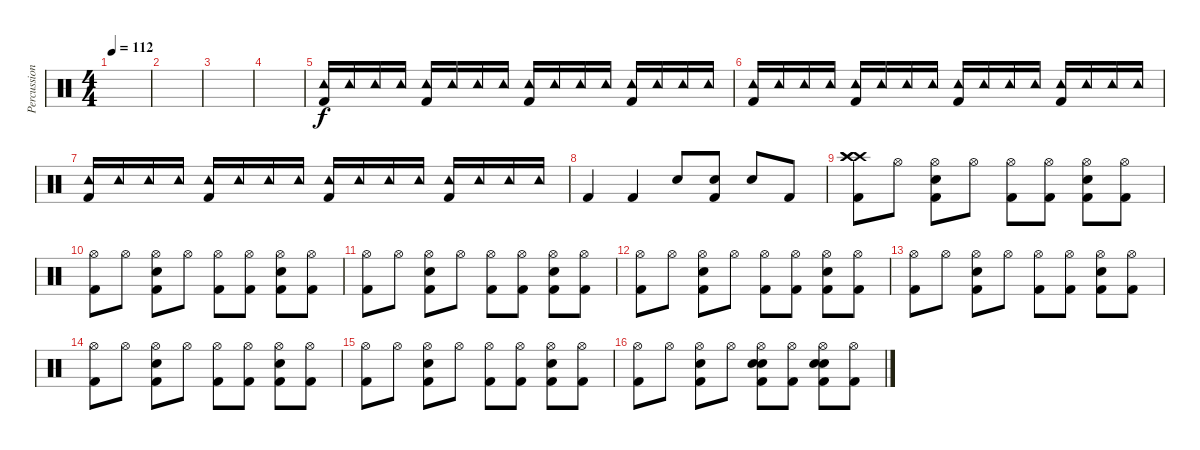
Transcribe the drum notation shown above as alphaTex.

\track ("Percussion" "Percussion") {instrument percussion}
\staff {score}
\articulation defaults
\ts (4 4)
\tempo 112
\clef neutral
\ks c
|
|
|
|
("Tambourine (hit)" "Kick (hit) 2").16 "Tambourine (hit)".16 "Tambourine (hit)".16 "Tambourine (hit)".16 ("Tambourine (hit)" "Kick (hit) 2").16 "Tambourine (hit)".16 "Tambourine (hit)".16 "Tambourine (hit)".16 ("Tambourine (hit)" "Kick (hit) 2").16 "Tambourine (hit)".16 "Tambourine (hit)".16 "Tambourine (hit)".16 ("Tambourine (hit)" "Kick (hit) 2").16 "Tambourine (hit)".16 "Tambourine (hit)".16 "Tambourine (hit)".16 |
("Tambourine (hit)" "Kick (hit) 2").16 "Tambourine (hit)".16 "Tambourine (hit)".16 "Tambourine (hit)".16 ("Tambourine (hit)" "Kick (hit) 2").16 "Tambourine (hit)".16 "Tambourine (hit)".16 "Tambourine (hit)".16 ("Tambourine (hit)" "Kick (hit) 2").16 "Tambourine (hit)".16 "Tambourine (hit)".16 "Tambourine (hit)".16 ("Tambourine (hit)" "Kick (hit) 2").16 "Tambourine (hit)".16 "Tambourine (hit)".16 "Tambourine (hit)".16 |
("Tambourine (hit)" "Kick (hit) 2").16 "Tambourine (hit)".16 "Tambourine (hit)".16 "Tambourine (hit)".16 ("Tambourine (hit)" "Kick (hit) 2").16 "Tambourine (hit)".16 "Tambourine (hit)".16 "Tambourine (hit)".16 ("Tambourine (hit)" "Kick (hit) 2").16 "Tambourine (hit)".16 "Tambourine (hit)".16 "Tambourine (hit)".16 ("Tambourine (hit)" "Kick (hit) 2").16 "Tambourine (hit)".16 "Tambourine (hit)".16 "Tambourine (hit)".16 |
"Kick (hit) 2".4 "Kick (hit) 2".4 "Electric Snare (hit)".8 ("Electric Snare (hit)" "Kick (hit) 2").8 "Snare (hit) 2".8 "Kick (hit) 2".8 |
("Crash high (hit)" "Crash high (hit)" "Crash high (hit)" "Kick (hit) 2").8 "Hi-Hat (open)".8 ("Hi-Hat (open)" "Electric Snare (hit)" "Kick (hit) 2").8 "Hi-Hat (open)".8 ("Hi-Hat (open)" "Kick (hit) 2").8 ("Hi-Hat (open)" "Kick (hit) 2").8 ("Hi-Hat (open)" "Electric Snare (hit)" "Kick (hit) 2").8 ("Hi-Hat (open)" "Kick (hit) 2").8 |
("Hi-Hat (open)" "Kick (hit) 2").8 "Hi-Hat (open)".8 ("Hi-Hat (open)" "Electric Snare (hit)" "Kick (hit) 2").8 "Hi-Hat (open)".8 ("Hi-Hat (open)" "Kick (hit) 2").8 ("Hi-Hat (open)" "Kick (hit) 2").8 ("Hi-Hat (open)" "Electric Snare (hit)" "Kick (hit) 2").8 ("Hi-Hat (open)" "Kick (hit) 2").8 |
("Hi-Hat (open)" "Kick (hit) 2").8 "Hi-Hat (open)".8 ("Hi-Hat (open)" "Electric Snare (hit)" "Kick (hit) 2").8 "Hi-Hat (open)".8 ("Hi-Hat (open)" "Kick (hit) 2").8 ("Hi-Hat (open)" "Kick (hit) 2").8 ("Hi-Hat (open)" "Electric Snare (hit)" "Kick (hit) 2").8 ("Hi-Hat (open)" "Kick (hit) 2").8 |
("Hi-Hat (open)" "Kick (hit) 2").8 "Hi-Hat (open)".8 ("Hi-Hat (open)" "Electric Snare (hit)" "Kick (hit) 2").8 "Hi-Hat (open)".8 ("Hi-Hat (open)" "Kick (hit) 2").8 ("Hi-Hat (open)" "Kick (hit) 2").8 ("Hi-Hat (open)" "Electric Snare (hit)" "Kick (hit) 2").8 ("Hi-Hat (open)" "Kick (hit) 2").8 |
("Hi-Hat (open)" "Kick (hit) 2").8 "Hi-Hat (open)".8 ("Hi-Hat (open)" "Electric Snare (hit)" "Kick (hit) 2").8 "Hi-Hat (open)".8 ("Hi-Hat (open)" "Kick (hit) 2").8 ("Hi-Hat (open)" "Kick (hit) 2").8 ("Hi-Hat (open)" "Electric Snare (hit)" "Kick (hit) 2").8 ("Hi-Hat (open)" "Kick (hit) 2").8 |
("Hi-Hat (open)" "Kick (hit) 2").8 "Hi-Hat (open)".8 ("Hi-Hat (open)" "Electric Snare (hit)" "Kick (hit) 2").8 "Hi-Hat (open)".8 ("Hi-Hat (open)" "Kick (hit) 2").8 ("Hi-Hat (open)" "Kick (hit) 2").8 ("Hi-Hat (open)" "Electric Snare (hit)" "Kick (hit) 2").8 ("Hi-Hat (open)" "Kick (hit) 2").8 |
("Hi-Hat (open)" "Kick (hit) 2").8 "Hi-Hat (open)".8 ("Hi-Hat (open)" "Electric Snare (hit)" "Kick (hit) 2").8 "Hi-Hat (open)".8 ("Hi-Hat (open)" "Kick (hit) 2").8 ("Hi-Hat (open)" "Kick (hit) 2").8 ("Hi-Hat (open)" "Electric Snare (hit)" "Kick (hit) 2").8 ("Hi-Hat (open)" "Kick (hit) 2").8 |
("Hi-Hat (open)" "Kick (hit) 2").8 "Hi-Hat (open)".8 ("Hi-Hat (open)" "Electric Snare (hit)" "Kick (hit) 2").8 "Hi-Hat (open)".8 ("Hi-Hat (open)" "Electric Snare (hit)" "Electric Snare (hit)" "Kick (hit) 2").8 ("Hi-Hat (open)" "Kick (hit) 2").8 ("Hi-Hat (open)" "Electric Snare (hit)" "Electric Snare (hit)" "Kick (hit) 2").8 ("Hi-Hat (open)" "Kick (hit) 2").8
